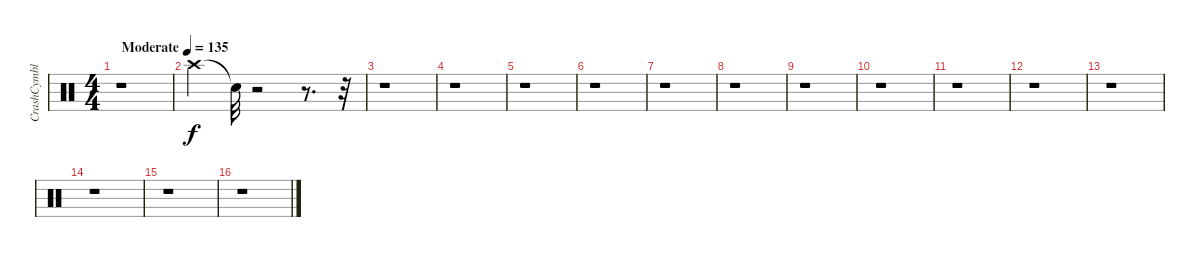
\track ("CrashCymbl" "CrashCymbl") {instrument percussion}
\staff {score}
\articulation defaults
\ts (4 4)
\tempo (135 "Moderate")
\clef neutral
\ks c
r.1{dy f} |
"Crash high (hit)".4 "Snare (hit)"{t}.32 r.2 r.8{d} r.32 |
r.1 |
r.1 |
r.1 |
r.1 |
r.1 |
r.1 |
r.1 |
r.1 |
r.1 |
r.1 |
r.1 |
r.1 |
r.1 |
r.1
